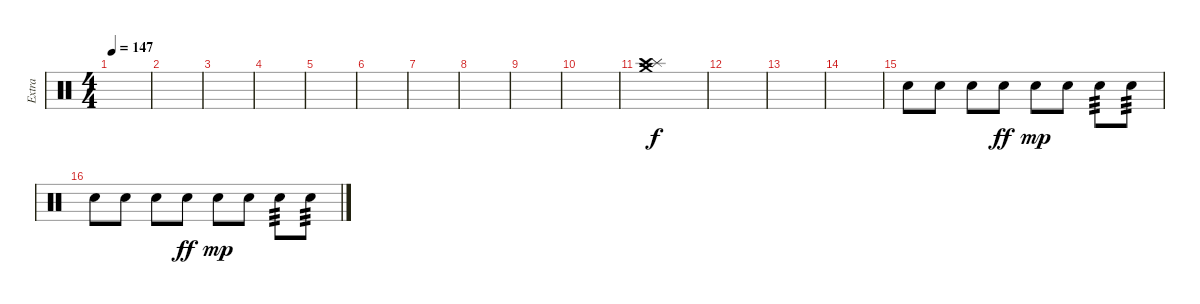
\track ("Extra" "Extra") {instrument percussion}
\staff {score}
\articulation defaults
\ts (4 4)
\tempo 147
\clef neutral
\ks c
|
|
|
|
|
|
|
|
|
|
("Splash (hit)" "Crash high (hit)" "Crash medium (hit)").1 |
|
|
|
"Electric Snare (hit)".8 "Electric Snare (hit)".8 "Electric Snare (hit)".8 "Electric Snare (hit)".8{dy ff} "Electric Snare (hit)".8{dy mp} "Electric Snare (hit)".8 "Electric Snare (hit)".8{tp 3} "Electric Snare (hit)".8{tp 3} |
"Electric Snare (hit)".8 "Electric Snare (hit)".8 "Electric Snare (hit)".8 "Electric Snare (hit)".8{dy ff} "Electric Snare (hit)".8{dy mp} "Electric Snare (hit)".8 "Electric Snare (hit)".8{tp 3} "Electric Snare (hit)".8{tp 3}
